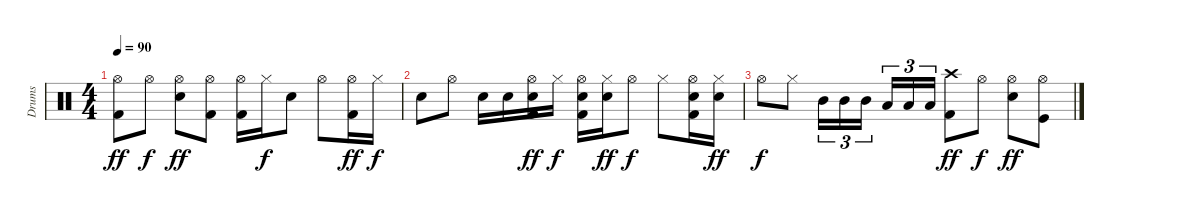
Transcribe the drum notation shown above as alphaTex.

\track ("Drums" "Drums") {instrument percussion}
\staff {score}
\articulation defaults
\ts (4 4)
\tempo 90
\clef neutral
\ks c
("Hi-Hat (open)" "Kick (hit) 2").8{dy ff} "Hi-Hat (open)".8{dy f} ("Hi-Hat (open)" "Electric Snare (hit)").8{dy ff} ("Hi-Hat (open)" "Kick (hit) 2").8 ("Hi-Hat (open)" "Kick (hit) 2").16 "Hi-Hat (closed)".16{dy f} "Electric Snare (hit)".8 "Hi-Hat (open)".8 ("Hi-Hat (open)" "Kick (hit) 2").16{dy ff} "Hi-Hat (closed)".16{dy f} |
"Electric Snare (hit)".8 "Hi-Hat (open)".8 "Electric Snare (hit)".16 "Electric Snare (hit)".16 ("Hi-Hat (open)" "Electric Snare (hit)" "Kick (hit) 2").16{dy ff} "Hi-Hat (closed)".16{dy f} ("Hi-Hat (open)" "Electric Snare (hit)" "Kick (hit) 2").16 ("Hi-Hat (closed)" "Electric Snare (hit)").16{dy ff} "Hi-Hat (open)".8{dy f} "Hi-Hat (closed)".8 ("Hi-Hat (open)" "Electric Snare (hit)" "Kick (hit) 2").16 ("Hi-Hat (closed)" "Electric Snare (hit)").16{dy ff} |
"Hi-Hat (open)".8{dy f} "Hi-Hat (closed)".8 "Mid Tom (hit)".16{tu (3 2)} "Mid Tom (hit)".16{tu (3 2)} "Mid Tom (hit)".16{tu (3 2)} "Low Tom (hit)".16{tu (3 2)} "Low Tom (hit)".16{tu (3 2)} "Low Tom (hit)".16{tu (3 2)} ("Crash high (hit)" "Kick (hit) 2").8{dy ff} "Hi-Hat (open)".8{dy f} ("Hi-Hat (open)" "Electric Snare (hit)").8{dy ff} ("Hi-Hat (open)" "Kick (hit)").8
